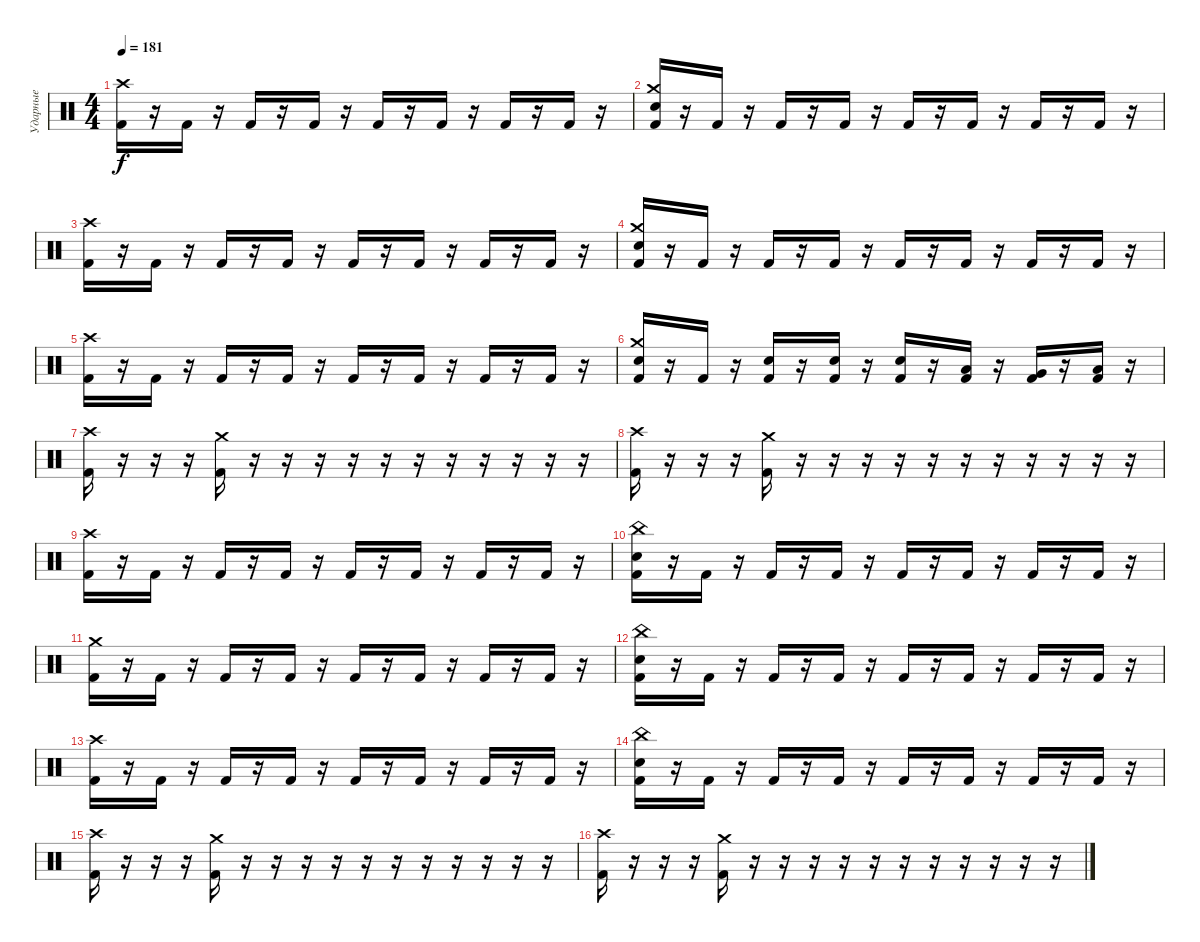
\track ("Ударные" "Ударные") {instrument percussion}
\staff {score}
\articulation defaults
\ts (4 4)
\tempo 181
\clef neutral
\ks c
("Crash high (hit)" "Kick (hit) 2").16{dy f} r.16 "Kick (hit) 2".16 r.16 "Kick (hit) 2".16 r.16 "Kick (hit) 2".16 r.16 "Kick (hit) 2".16 r.16 "Kick (hit) 2".16 r.16 "Kick (hit) 2".16 r.16 "Kick (hit) 2".16 r.16 |
("Crash medium (hit)" "Snare (hit) 2" "Kick (hit) 2").16 r.16 "Kick (hit) 2".16 r.16 "Kick (hit) 2".16 r.16 "Kick (hit) 2".16 r.16 "Kick (hit) 2".16 r.16 "Kick (hit) 2".16 r.16 "Kick (hit) 2".16 r.16 "Kick (hit) 2".16 r.16 |
("Crash high (hit)" "Kick (hit) 2").16 r.16 "Kick (hit) 2".16 r.16 "Kick (hit) 2".16 r.16 "Kick (hit) 2".16 r.16 "Kick (hit) 2".16 r.16 "Kick (hit) 2".16 r.16 "Kick (hit) 2".16 r.16 "Kick (hit) 2".16 r.16 |
("Crash medium (hit)" "Snare (hit) 2" "Kick (hit) 2").16 r.16 "Kick (hit) 2".16 r.16 "Kick (hit) 2".16 r.16 "Kick (hit) 2".16 r.16 "Kick (hit) 2".16 r.16 "Kick (hit) 2".16 r.16 "Kick (hit) 2".16 r.16 "Kick (hit) 2".16 r.16 |
("Crash high (hit)" "Kick (hit) 2").16 r.16 "Kick (hit) 2".16 r.16 "Kick (hit) 2".16 r.16 "Kick (hit) 2".16 r.16 "Kick (hit) 2".16 r.16 "Kick (hit) 2".16 r.16 "Kick (hit) 2".16 r.16 "Kick (hit) 2".16 r.16 |
("Crash medium (hit)" "Snare (hit) 2" "Kick (hit) 2").16 r.16 "Kick (hit) 2".16 r.16 ("Snare (hit) 2" "Kick (hit) 2").16 r.16 ("Snare (hit) 2" "Kick (hit) 2").16 r.16 ("Snare (hit) 2" "Kick (hit) 2").16 r.16 ("Low Tom (hit)" "Kick (hit) 2").16 r.16 ("Very Low Tom (hit)" "Kick (hit) 2").16 r.16 ("Low Floor Tom (hit)" "Kick (hit) 2").16 r.16 |
("Kick (hit) 2" "Crash high (hit)").16 r.16 r.16 r.16 ("Kick (hit) 2" "Crash medium (hit)").16 r.16 r.16 r.16 r.16 r.16 r.16 r.16 r.16 r.16 r.16 r.16 |
("Crash high (hit)" "Kick (hit) 2").16 r.16 r.16 r.16 ("Crash medium (hit)" "Kick (hit) 2").16 r.16 r.16 r.16 r.16 r.16 r.16 r.16 r.16 r.16 r.16 r.16 |
("Crash high (hit)" "Kick (hit) 2").16 r.16 "Kick (hit) 2".16 r.16 "Kick (hit) 2".16 r.16 "Kick (hit) 2".16 r.16 "Kick (hit) 2".16 r.16 "Kick (hit) 2".16 r.16 "Kick (hit) 2".16 r.16 "Kick (hit) 2".16 r.16 |
("China (hit)" "Snare (hit) 2" "Kick (hit) 2").16 r.16 "Kick (hit) 2".16 r.16 "Kick (hit) 2".16 r.16 "Kick (hit) 2".16 r.16 "Kick (hit) 2".16 r.16 "Kick (hit) 2".16 r.16 "Kick (hit) 2".16 r.16 "Kick (hit) 2".16 r.16 |
("Crash medium (hit)" "Kick (hit) 2").16 r.16 "Kick (hit) 2".16 r.16 "Kick (hit) 2".16 r.16 "Kick (hit) 2".16 r.16 "Kick (hit) 2".16 r.16 "Kick (hit) 2".16 r.16 "Kick (hit) 2".16 r.16 "Kick (hit) 2".16 r.16 |
("China (hit)" "Snare (hit) 2" "Kick (hit) 2").16 r.16 "Kick (hit) 2".16 r.16 "Kick (hit) 2".16 r.16 "Kick (hit) 2".16 r.16 "Kick (hit) 2".16 r.16 "Kick (hit) 2".16 r.16 "Kick (hit) 2".16 r.16 "Kick (hit) 2".16 r.16 |
("Crash high (hit)" "Kick (hit) 2").16 r.16 "Kick (hit) 2".16 r.16 "Kick (hit) 2".16 r.16 "Kick (hit) 2".16 r.16 "Kick (hit) 2".16 r.16 "Kick (hit) 2".16 r.16 "Kick (hit) 2".16 r.16 "Kick (hit) 2".16 r.16 |
("China (hit)" "Snare (hit) 2" "Kick (hit) 2").16 r.16 "Kick (hit) 2".16 r.16 "Kick (hit) 2".16 r.16 "Kick (hit) 2".16 r.16 "Kick (hit) 2".16 r.16 "Kick (hit) 2".16 r.16 "Kick (hit) 2".16 r.16 "Kick (hit) 2".16 r.16 |
("Kick (hit) 2" "Crash high (hit)").16 r.16 r.16 r.16 ("Kick (hit) 2" "Crash medium (hit)").16 r.16 r.16 r.16 r.16 r.16 r.16 r.16 r.16 r.16 r.16 r.16 |
("Crash high (hit)" "Kick (hit) 2").16 r.16 r.16 r.16 ("Crash medium (hit)" "Kick (hit) 2").16 r.16 r.16 r.16 r.16 r.16 r.16 r.16 r.16 r.16 r.16 r.16
